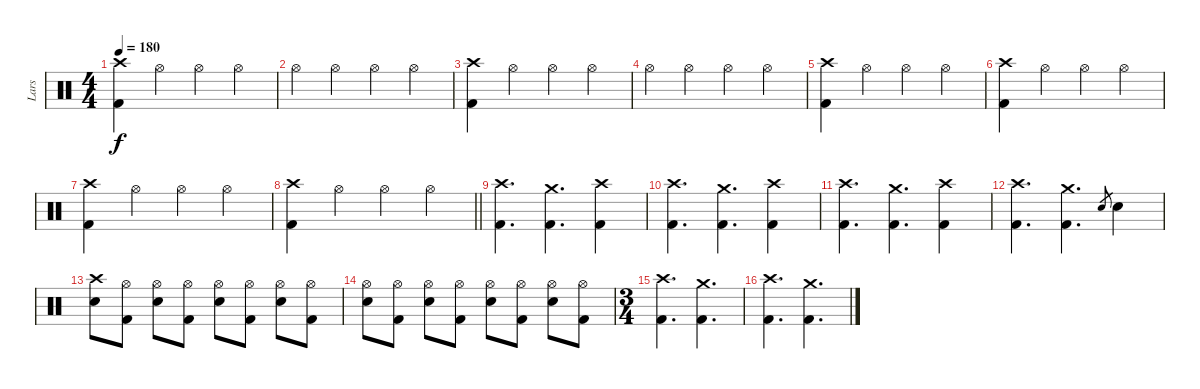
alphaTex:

\track ("Lars" "Lars") {instrument percussion}
\staff {score}
\articulation defaults
\ts (4 4)
\tempo 180
\clef neutral
\ks c
("Crash high (hit)" "Kick (hit) 2").4{dy f} "Hi-Hat (open)".4 "Hi-Hat (open)".4 "Hi-Hat (open)".4 |
"Hi-Hat (open)".4 "Hi-Hat (open)".4 "Hi-Hat (open)".4 "Hi-Hat (open)".4 |
("Crash high (hit)" "Kick (hit) 2").4 "Hi-Hat (open)".4 "Hi-Hat (open)".4 "Hi-Hat (open)".4 |
"Hi-Hat (open)".4 "Hi-Hat (open)".4 "Hi-Hat (open)".4 "Hi-Hat (open)".4 |
("Crash high (hit)" "Kick (hit) 2").4 "Hi-Hat (open)".4 "Hi-Hat (open)".4 "Hi-Hat (open)".4 |
("Crash high (hit)" "Kick (hit) 2").4 "Hi-Hat (open)".4 "Hi-Hat (open)".4 "Hi-Hat (open)".4 |
("Crash high (hit)" "Kick (hit) 2").4 "Hi-Hat (open)".4 "Hi-Hat (open)".4 "Hi-Hat (open)".4 |
\barLineRight lightlight
("Crash high (hit)" "Kick (hit) 2").4 "Hi-Hat (open)".4 "Hi-Hat (open)".4 "Hi-Hat (open)".4 |
\section ("" "")
("Crash high (hit)" "Kick (hit) 2").4{d} ("Crash medium (hit)" "Kick (hit) 2").4{d} ("Crash high (hit)" "Kick (hit) 2").4 |
("Crash high (hit)" "Kick (hit) 2").4{d} ("Crash medium (hit)" "Kick (hit) 2").4{d} ("Crash high (hit)" "Kick (hit) 2").4 |
("Crash high (hit)" "Kick (hit) 2").4{d} ("Crash medium (hit)" "Kick (hit) 2").4{d} ("Crash high (hit)" "Kick (hit) 2").4 |
("Crash high (hit)" "Kick (hit) 2").4{d} ("Crash medium (hit)" "Kick (hit) 2").4{d} "Electric Snare (hit)".8{gr} "Electric Snare (hit)".4 |
("Crash high (hit)" "Electric Snare (hit)").8 ("Hi-Hat (open)" "Kick (hit) 2").8 ("Hi-Hat (open)" "Electric Snare (hit)").8 ("Hi-Hat (open)" "Kick (hit) 2").8 ("Hi-Hat (open)" "Electric Snare (hit)").8 ("Hi-Hat (open)" "Kick (hit) 2").8 ("Hi-Hat (open)" "Electric Snare (hit)").8 ("Hi-Hat (open)" "Kick (hit) 2").8 |
("Hi-Hat (open)" "Electric Snare (hit)").8 ("Hi-Hat (open)" "Kick (hit) 2").8 ("Hi-Hat (open)" "Electric Snare (hit)").8 ("Hi-Hat (open)" "Kick (hit) 2").8 ("Hi-Hat (open)" "Electric Snare (hit)").8 ("Hi-Hat (open)" "Kick (hit) 2").8 ("Hi-Hat (open)" "Electric Snare (hit)").8 ("Hi-Hat (open)" "Kick (hit) 2").8 |
\ts (3 4)
("Crash high (hit)" "Kick (hit) 2").4{d} ("Crash medium (hit)" "Kick (hit) 2").4{d} |
("Crash high (hit)" "Kick (hit) 2").4{d} ("Crash medium (hit)" "Kick (hit) 2").4{d}
